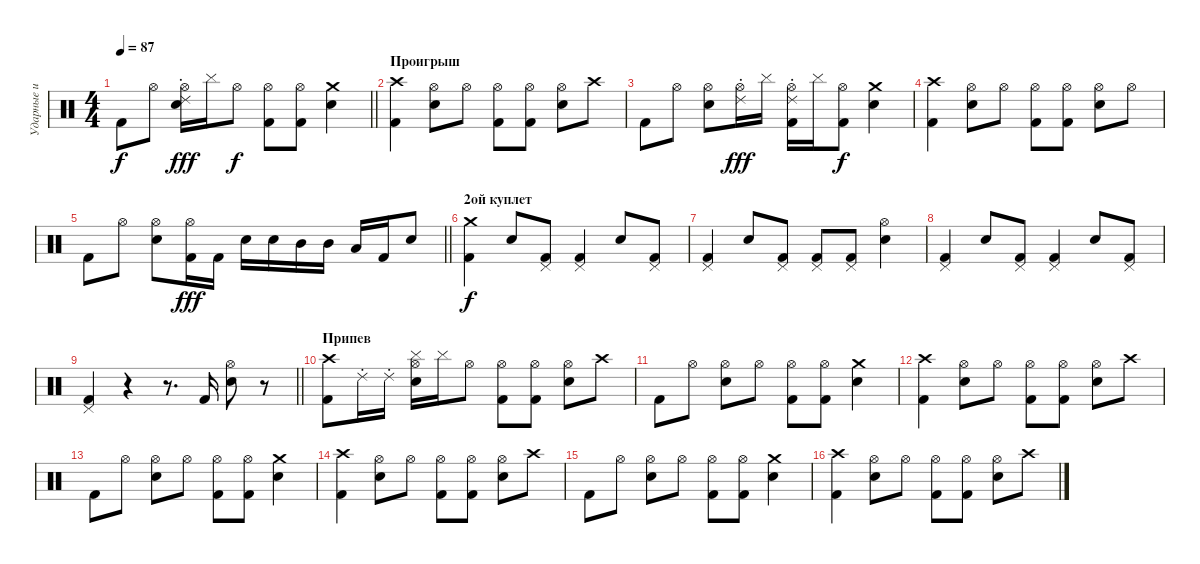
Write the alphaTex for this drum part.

\track ("Ударные и Скрэтч" "Ударные и ") {instrument percussion}
\staff {score}
\articulation defaults
\ts (4 4)
\tempo 87
\clef neutral
\barLineRight lightlight
\ks c "Kick (hit) 2".8{dy f} "Hi-Hat (open)".8
("Electric Snare (hit)" "Hi-Hat (open)" "Ride (choke) 2").16{dy fff} "Cymbal (hit)".16 "Hi-Hat (open)".8{dy f} ("Kick (hit) 2" "Hi-Hat (open)").8 ("Kick (hit) 2" "Hi-Hat (open)").8 ("Electric Snare (hit)" "Crash medium (hit)").4 |
\section ("" "Проигрыш")
("Kick (hit) 2" "Crash high (hit)").4 ("Electric Snare (hit)" "Hi-Hat (open)").8 "Hi-Hat (open)".8 ("Kick (hit) 2" "Hi-Hat (open)").8 ("Kick (hit) 2" "Hi-Hat (open)").8 ("Electric Snare (hit)" "Hi-Hat (open)").8 "Crash high (hit)".8 |
"Kick (hit) 2".8 "Hi-Hat (open)".8 ("Electric Snare (hit)" "Hi-Hat (open)").8 ("Hi-Hat (open)" "Ride (choke) 2").16{dy fff} "Cymbal (hit)".16 ("Kick (hit) 2" "Hi-Hat (open)" "Ride (choke) 2").16 "Cymbal (hit)".16 ("Kick (hit) 2" "Hi-Hat (open)").8{dy f} ("Electric Snare (hit)" "Crash medium (hit)").4 |
("Kick (hit) 2" "Crash high (hit)").4 ("Electric Snare (hit)" "Hi-Hat (open)").8 "Hi-Hat (open)".8 ("Kick (hit) 2" "Hi-Hat (open)").8 ("Kick (hit) 2" "Hi-Hat (open)").8 ("Electric Snare (hit)" "Hi-Hat (open)").8 "Hi-Hat (open)".8 |
\barLineRight lightlight "Kick (hit) 2".8 "Hi-Hat (open)".8
("Electric Snare (hit)" "Hi-Hat (open)").8 ("Kick (hit) 2" "Hi-Hat (open)").16{dy fff} "Kick (hit) 2".16 "Electric Snare (hit)".16 "Electric Snare (hit)".16 "Mid Tom (hit)".16 "Mid Tom (hit)".16 "Low Tom (hit)".16 "Kick (hit) 2".16 "Electric Snare (hit)".8 |
\section ("" "2ой куплет")
("Kick (hit) 2" "Crash medium (hit)").4{dy f} "Electric Snare (hit)".8 ("Kick (hit) 2" "Pedal Hi-Hat (hit)").8 ("Kick (hit) 2" "Pedal Hi-Hat (hit)").4 "Electric Snare (hit)".8 ("Kick (hit) 2" "Pedal Hi-Hat (hit)").8 |
("Kick (hit) 2" "Pedal Hi-Hat (hit)").4 "Electric Snare (hit)".8 ("Kick (hit) 2" "Pedal Hi-Hat (hit)").8 ("Kick (hit) 2" "Pedal Hi-Hat (hit)").8 ("Kick (hit) 2" "Pedal Hi-Hat (hit)").8 ("Electric Snare (hit)" "Hi-Hat (open)").4 |
("Kick (hit) 2" "Pedal Hi-Hat (hit)").4 "Electric Snare (hit)".8 ("Kick (hit) 2" "Pedal Hi-Hat (hit)").8 ("Kick (hit) 2" "Pedal Hi-Hat (hit)").4 "Electric Snare (hit)".8 ("Kick (hit) 2" "Pedal Hi-Hat (hit)").8 |
\barLineRight lightlight
("Kick (hit) 2" "Pedal Hi-Hat (hit)").4 r.4 r.8{d} "Kick (hit) 2".16 ("Electric Snare (hit)" "Hi-Hat (open)").8 r.8 |
\section ("" "Припев")
("Kick (hit) 2" "Crash high (hit)").8 "Ride (choke) 2".16 "Ride (choke) 2".16 ("Electric Snare (hit)" "Hi-Hat (open)" "Cymbal (hit)").16 "Cymbal (hit)".16 "Hi-Hat (open)".8 ("Kick (hit) 2" "Hi-Hat (open)").8 ("Kick (hit) 2" "Hi-Hat (open)").8 ("Electric Snare (hit)" "Hi-Hat (open)").8 "Crash high (hit)".8 |
"Kick (hit) 2".8 "Hi-Hat (open)".8 ("Electric Snare (hit)" "Hi-Hat (open)").8 "Hi-Hat (open)".8 ("Kick (hit) 2" "Hi-Hat (open)").8 ("Kick (hit) 2" "Hi-Hat (open)").8 ("Electric Snare (hit)" "Crash medium (hit)").4 |
("Kick (hit) 2" "Crash high (hit)").4 ("Electric Snare (hit)" "Hi-Hat (open)").8 "Hi-Hat (open)".8 ("Kick (hit) 2" "Hi-Hat (open)").8 ("Kick (hit) 2" "Hi-Hat (open)").8 ("Electric Snare (hit)" "Hi-Hat (open)").8 "Crash high (hit)".8 |
"Kick (hit) 2".8 "Hi-Hat (open)".8 ("Electric Snare (hit)" "Hi-Hat (open)").8 "Hi-Hat (open)".8 ("Kick (hit) 2" "Hi-Hat (open)").8 ("Kick (hit) 2" "Hi-Hat (open)").8 ("Electric Snare (hit)" "Crash medium (hit)").4 |
("Kick (hit) 2" "Crash high (hit)").4 ("Electric Snare (hit)" "Hi-Hat (open)").8 "Hi-Hat (open)".8 ("Kick (hit) 2" "Hi-Hat (open)").8 ("Kick (hit) 2" "Hi-Hat (open)").8 ("Electric Snare (hit)" "Hi-Hat (open)").8 "Crash high (hit)".8 |
"Kick (hit) 2".8 "Hi-Hat (open)".8 ("Electric Snare (hit)" "Hi-Hat (open)").8 "Hi-Hat (open)".8 ("Kick (hit) 2" "Hi-Hat (open)").8 ("Kick (hit) 2" "Hi-Hat (open)").8 ("Electric Snare (hit)" "Crash medium (hit)").4 |
("Kick (hit) 2" "Crash high (hit)").4 ("Electric Snare (hit)" "Hi-Hat (open)").8 "Hi-Hat (open)".8 ("Kick (hit) 2" "Hi-Hat (open)").8 ("Kick (hit) 2" "Hi-Hat (open)").8 ("Electric Snare (hit)" "Hi-Hat (open)").8 "Crash high (hit)".8
